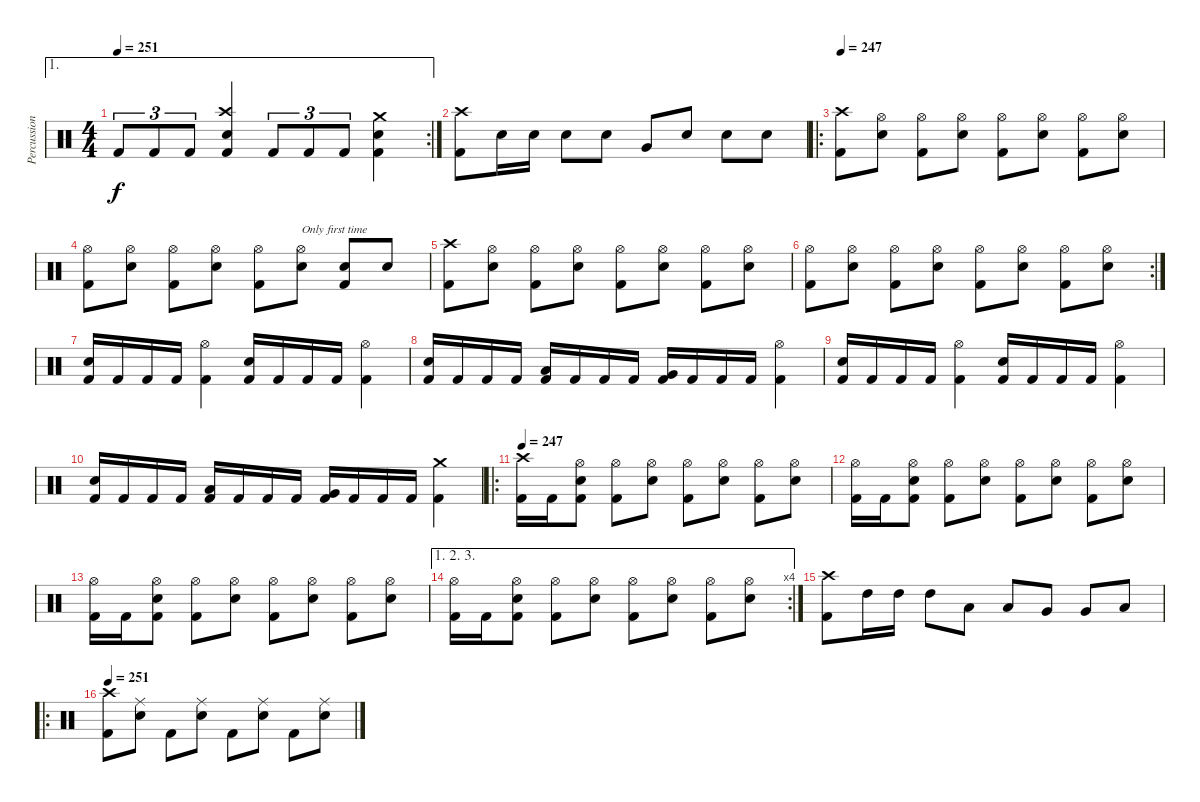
\track ("Percussion" "Percussion") {instrument percussion}
\staff {score}
\articulation defaults
\ae 1
\rc 2
\ts (4 4)
\tempo 251
\clef neutral
\ks c "Kick (hit) 2".8{tu (3 2) dy f} "Kick (hit) 2".8{tu (3 2)} "Kick (hit) 2".8{tu (3 2)}
("Crash high (hit)" "Snare (hit) 2" "Kick (hit) 2").4 "Kick (hit) 2".8{tu (3 2)} "Kick (hit) 2".8{tu (3 2)} "Kick (hit) 2".8{tu (3 2)} ("Crash medium (hit)" "Snare (hit) 2" "Kick (hit) 2").4 |
("Crash high (hit)" "Kick (hit) 2").8 "Snare (hit) 2".16 "Snare (hit) 2".16 "Snare (hit) 2".8 "Snare (hit) 2".8 "Very Low Tom (hit)".8 "Snare (hit) 2".8 "Snare (hit) 2".8 "Snare (hit) 2".8 |
\ro
\tempo 247
("Crash high (hit)" "Kick (hit) 2").8 ("Hi-Hat (open)" "Snare (hit) 2").8 ("Hi-Hat (open)" "Kick (hit) 2").8 ("Hi-Hat (open)" "Snare (hit) 2").8 ("Hi-Hat (open)" "Kick (hit) 2").8 ("Hi-Hat (open)" "Snare (hit) 2").8 ("Hi-Hat (open)" "Kick (hit) 2").8 ("Hi-Hat (open)" "Snare (hit) 2").8 |
("Hi-Hat (open)" "Kick (hit) 2").8 ("Hi-Hat (open)" "Snare (hit) 2").8 ("Hi-Hat (open)" "Kick (hit) 2").8 ("Hi-Hat (open)" "Snare (hit) 2").8 ("Hi-Hat (open)" "Kick (hit) 2").8 ("Hi-Hat (open)" "Snare (hit) 2").8{txt "Only first time"} ("Snare (hit) 2" "Kick (hit) 2").8 "Snare (hit) 2".8 |
("Crash high (hit)" "Kick (hit) 2").8 ("Hi-Hat (open)" "Snare (hit) 2").8 ("Hi-Hat (open)" "Kick (hit) 2").8 ("Hi-Hat (open)" "Snare (hit) 2").8 ("Hi-Hat (open)" "Kick (hit) 2").8 ("Hi-Hat (open)" "Snare (hit) 2").8 ("Hi-Hat (open)" "Kick (hit) 2").8 ("Hi-Hat (open)" "Snare (hit) 2").8 |
\rc 2
("Hi-Hat (open)" "Kick (hit) 2").8 ("Hi-Hat (open)" "Snare (hit) 2").8 ("Hi-Hat (open)" "Kick (hit) 2").8 ("Hi-Hat (open)" "Snare (hit) 2").8 ("Hi-Hat (open)" "Kick (hit) 2").8 ("Hi-Hat (open)" "Snare (hit) 2").8 ("Hi-Hat (open)" "Kick (hit) 2").8 ("Hi-Hat (open)" "Snare (hit) 2").8 |
("Snare (hit) 2" "Kick (hit) 2").16 "Kick (hit) 2".16 "Kick (hit) 2".16 "Kick (hit) 2".16 ("Hi-Hat (open)" "Kick (hit) 2").4 ("Snare (hit) 2" "Kick (hit) 2").16 "Kick (hit) 2".16 "Kick (hit) 2".16 "Kick (hit) 2".16 ("Hi-Hat (open)" "Kick (hit) 2").4 |
("Snare (hit) 2" "Kick (hit) 2").16 "Kick (hit) 2".16 "Kick (hit) 2".16 "Kick (hit) 2".16 ("Low Tom (hit)" "Kick (hit) 2").16 "Kick (hit) 2".16 "Kick (hit) 2".16 "Kick (hit) 2".16 ("Very Low Tom (hit)" "Kick (hit) 2").16 "Kick (hit) 2".16 "Kick (hit) 2".16 "Kick (hit) 2".16 ("Hi-Hat (open)" "Kick (hit) 2").4 |
("Snare (hit) 2" "Kick (hit) 2").16 "Kick (hit) 2".16 "Kick (hit) 2".16 "Kick (hit) 2".16 ("Hi-Hat (open)" "Kick (hit) 2").4 ("Snare (hit) 2" "Kick (hit) 2").16 "Kick (hit) 2".16 "Kick (hit) 2".16 "Kick (hit) 2".16 ("Hi-Hat (open)" "Kick (hit) 2").4 |
("Snare (hit) 2" "Kick (hit) 2").16 "Kick (hit) 2".16 "Kick (hit) 2".16 "Kick (hit) 2".16 ("Low Tom (hit)" "Kick (hit) 2").16 "Kick (hit) 2".16 "Kick (hit) 2".16 "Kick (hit) 2".16 ("Very Low Tom (hit)" "Kick (hit) 2").16 "Kick (hit) 2".16 "Kick (hit) 2".16 "Kick (hit) 2".16 ("Crash medium (hit)" "Kick (hit) 2").4 |
\ro
\tempo 247
("Crash high (hit)" "Kick (hit) 2").16 "Kick (hit) 2".16 ("Hi-Hat (open)" "Snare (hit) 2" "Kick (hit) 2").8 ("Hi-Hat (open)" "Kick (hit) 2").8 ("Hi-Hat (open)" "Snare (hit) 2").8 ("Hi-Hat (open)" "Kick (hit) 2").8 ("Hi-Hat (open)" "Snare (hit) 2").8 ("Hi-Hat (open)" "Kick (hit) 2").8 ("Hi-Hat (open)" "Snare (hit) 2").8 |
("Hi-Hat (open)" "Kick (hit) 2").16 "Kick (hit) 2".16 ("Hi-Hat (open)" "Snare (hit) 2" "Kick (hit) 2").8 ("Hi-Hat (open)" "Kick (hit) 2").8 ("Hi-Hat (open)" "Snare (hit) 2").8 ("Hi-Hat (open)" "Kick (hit) 2").8 ("Hi-Hat (open)" "Snare (hit) 2").8 ("Hi-Hat (open)" "Kick (hit) 2").8 ("Hi-Hat (open)" "Snare (hit) 2").8 |
("Hi-Hat (open)" "Kick (hit) 2").16 "Kick (hit) 2".16 ("Hi-Hat (open)" "Snare (hit) 2" "Kick (hit) 2").8 ("Hi-Hat (open)" "Kick (hit) 2").8 ("Hi-Hat (open)" "Snare (hit) 2").8 ("Hi-Hat (open)" "Kick (hit) 2").8 ("Hi-Hat (open)" "Snare (hit) 2").8 ("Hi-Hat (open)" "Kick (hit) 2").8 ("Hi-Hat (open)" "Snare (hit) 2").8 |
\ae (1 2 3)
\rc 4
("Hi-Hat (open)" "Kick (hit) 2").16 "Kick (hit) 2".16 ("Hi-Hat (open)" "Snare (hit) 2" "Kick (hit) 2").8 ("Hi-Hat (open)" "Kick (hit) 2").8 ("Hi-Hat (open)" "Snare (hit) 2").8 ("Hi-Hat (open)" "Kick (hit) 2").8 ("Hi-Hat (open)" "Snare (hit) 2").8 ("Hi-Hat (open)" "Kick (hit) 2").8 ("Hi-Hat (open)" "Snare (hit) 2").8 |
("Crash high (hit)" "Kick (hit) 2").8 "High Tom (hit)".16 "High Tom (hit)".16 "High Tom (hit)".8 "Low Tom (hit)".8 "Low Tom (hit)".8 "Very Low Tom (hit)".8 "Very Low Tom (hit)".8 "Low Floor Tom (hit)".8 |
\ro
\tempo 251
("Crash high (hit)" "Kick (hit) 2").8 ("Ride (middle)" "Snare (hit) 2").8 "Kick (hit) 2".8 ("Ride (middle)" "Snare (hit) 2").8 "Kick (hit) 2".8 ("Ride (middle)" "Snare (hit) 2").8 "Kick (hit) 2".8 ("Ride (middle)" "Snare (hit) 2").8
